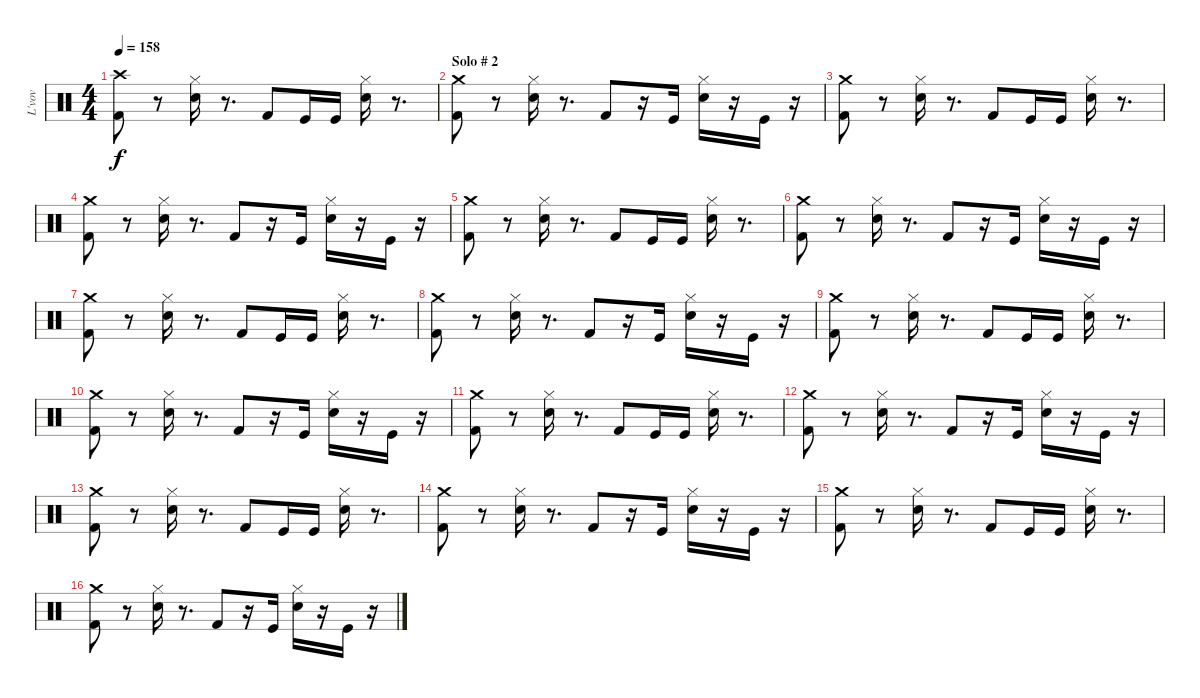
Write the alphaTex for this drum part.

\track ("L'vov " "L'vov ") {instrument percussion}
\staff {score}
\articulation defaults
\ts (4 4)
\tempo 158
\clef neutral
\ks c
("Kick (hit) 2" "Crash high (hit)").8{dy f} r.8 ("Snare (hit) 2" "Hi-Hat (closed)").16 r.8{d} "Kick (hit) 2".8 "Kick (hit)".16 "Kick (hit)".16 ("Snare (hit) 2" "Hi-Hat (closed)").16 r.8{d} |
\section ("" "Solo # 2")
("Kick (hit) 2" "Crash medium (hit)").8 r.8 ("Snare (hit) 2" "Hi-Hat (closed)").16 r.8{d} "Kick (hit) 2".8 r.16 "Kick (hit)".16 ("Electric Snare (hit)" "Hi-Hat (closed)").16 r.16 "Kick (hit)".16 r.16 |
("Kick (hit) 2" "Crash medium (hit)").8 r.8 ("Snare (hit) 2" "Hi-Hat (closed)").16 r.8{d} "Kick (hit) 2".8 "Kick (hit)".16 "Kick (hit)".16 ("Snare (hit) 2" "Hi-Hat (closed)").16 r.8{d} |
("Kick (hit) 2" "Crash medium (hit)").8 r.8 ("Snare (hit) 2" "Hi-Hat (closed)").16 r.8{d} "Kick (hit) 2".8 r.16 "Kick (hit)".16 ("Electric Snare (hit)" "Hi-Hat (closed)").16 r.16 "Kick (hit)".16 r.16 |
("Kick (hit) 2" "Crash medium (hit)").8 r.8 ("Snare (hit) 2" "Hi-Hat (closed)").16 r.8{d} "Kick (hit) 2".8 "Kick (hit)".16 "Kick (hit)".16 ("Snare (hit) 2" "Hi-Hat (closed)").16 r.8{d} |
("Kick (hit) 2" "Crash medium (hit)").8 r.8 ("Snare (hit) 2" "Hi-Hat (closed)").16 r.8{d} "Kick (hit) 2".8 r.16 "Kick (hit)".16 ("Electric Snare (hit)" "Hi-Hat (closed)").16 r.16 "Kick (hit)".16 r.16 |
("Kick (hit) 2" "Crash medium (hit)").8 r.8 ("Snare (hit) 2" "Hi-Hat (closed)").16 r.8{d} "Kick (hit) 2".8 "Kick (hit)".16 "Kick (hit)".16 ("Snare (hit) 2" "Hi-Hat (closed)").16 r.8{d} |
("Kick (hit) 2" "Crash medium (hit)").8 r.8 ("Snare (hit) 2" "Hi-Hat (closed)").16 r.8{d} "Kick (hit) 2".8 r.16 "Kick (hit)".16 ("Electric Snare (hit)" "Hi-Hat (closed)").16 r.16 "Kick (hit)".16 r.16 |
("Kick (hit) 2" "Crash medium (hit)").8 r.8 ("Snare (hit) 2" "Hi-Hat (closed)").16 r.8{d} "Kick (hit) 2".8 "Kick (hit)".16 "Kick (hit)".16 ("Snare (hit) 2" "Hi-Hat (closed)").16 r.8{d} |
("Kick (hit) 2" "Crash medium (hit)").8 r.8 ("Snare (hit) 2" "Hi-Hat (closed)").16 r.8{d} "Kick (hit) 2".8 r.16 "Kick (hit)".16 ("Electric Snare (hit)" "Hi-Hat (closed)").16 r.16 "Kick (hit)".16 r.16 |
("Kick (hit) 2" "Crash medium (hit)").8 r.8 ("Snare (hit) 2" "Hi-Hat (closed)").16 r.8{d} "Kick (hit) 2".8 "Kick (hit)".16 "Kick (hit)".16 ("Snare (hit) 2" "Hi-Hat (closed)").16 r.8{d} |
("Kick (hit) 2" "Crash medium (hit)").8 r.8 ("Snare (hit) 2" "Hi-Hat (closed)").16 r.8{d} "Kick (hit) 2".8 r.16 "Kick (hit)".16 ("Electric Snare (hit)" "Hi-Hat (closed)").16 r.16 "Kick (hit)".16 r.16 |
("Kick (hit) 2" "Crash medium (hit)").8 r.8 ("Snare (hit) 2" "Hi-Hat (closed)").16 r.8{d} "Kick (hit) 2".8 "Kick (hit)".16 "Kick (hit)".16 ("Snare (hit) 2" "Hi-Hat (closed)").16 r.8{d} |
("Kick (hit) 2" "Crash medium (hit)").8 r.8 ("Snare (hit) 2" "Hi-Hat (closed)").16 r.8{d} "Kick (hit) 2".8 r.16 "Kick (hit)".16 ("Electric Snare (hit)" "Hi-Hat (closed)").16 r.16 "Kick (hit)".16 r.16 |
("Kick (hit) 2" "Crash medium (hit)").8 r.8 ("Snare (hit) 2" "Hi-Hat (closed)").16 r.8{d} "Kick (hit) 2".8 "Kick (hit)".16 "Kick (hit)".16 ("Snare (hit) 2" "Hi-Hat (closed)").16 r.8{d} |
("Kick (hit) 2" "Crash medium (hit)").8 r.8 ("Snare (hit) 2" "Hi-Hat (closed)").16 r.8{d} "Kick (hit) 2".8 r.16 "Kick (hit)".16 ("Electric Snare (hit)" "Hi-Hat (closed)").16 r.16 "Kick (hit)".16 r.16
